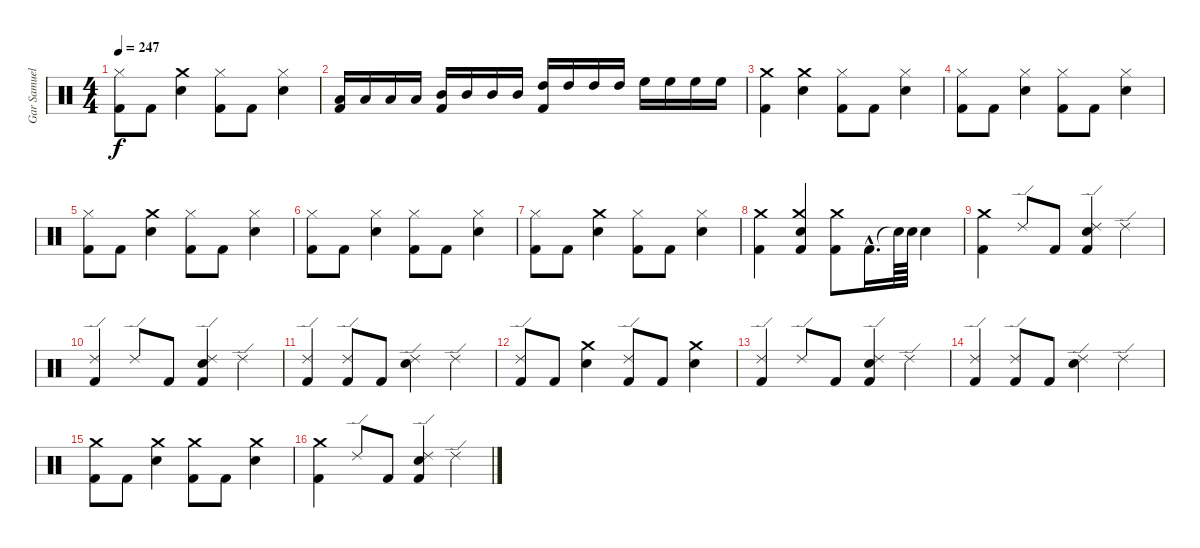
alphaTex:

\track ("Gar Samuelson (Drums)" "Gar Samuel") {instrument percussion}
\staff {score}
\articulation defaults
\ts (4 4)
\tempo 247
\clef neutral
\ks c
("Kick (hit) 2" "Hi-Hat (closed)").8{dy f} "Kick (hit) 2".8 ("Crash medium (hit)" "Snare (hit) 2").4 ("Kick (hit) 2" "Hi-Hat (closed)").8 "Kick (hit) 2".8 ("Snare (hit) 2" "Hi-Hat (closed)").4 |
("Low Tom (hit)" "Kick (hit) 2").16 "Low Tom (hit)".16 "Low Tom (hit)".16 "Low Tom (hit)".16 ("Mid Tom (hit)" "Kick (hit) 2").16 "Mid Tom (hit)".16 "Mid Tom (hit)".16 "Mid Tom (hit)".16 ("High Tom (hit)" "Kick (hit) 2").16 "High Tom (hit)".16 "High Tom (hit)".16 "High Tom (hit)".16 "High Floor Tom (hit)".16 "High Floor Tom (hit)".16 "High Floor Tom (hit)".16 "High Floor Tom (hit)".16 |
("Kick (hit) 2" "Crash medium (hit)").4 ("Snare (hit) 2" "Crash medium (hit)").4 ("Hi-Hat (closed)" "Kick (hit) 2").8 "Kick (hit) 2".8 ("Hi-Hat (closed)" "Snare (hit) 2").4 |
("Kick (hit) 2" "Hi-Hat (closed)").8 "Kick (hit) 2".8 ("Snare (hit) 2" "Hi-Hat (closed)").4 ("Kick (hit) 2" "Hi-Hat (closed)").8 "Kick (hit) 2".8 ("Snare (hit) 2" "Hi-Hat (closed)").4 |
("Kick (hit) 2" "Hi-Hat (closed)").8 "Kick (hit) 2".8 ("Crash medium (hit)" "Snare (hit) 2").4 ("Kick (hit) 2" "Hi-Hat (closed)").8 "Kick (hit) 2".8 ("Snare (hit) 2" "Hi-Hat (closed)").4 |
("Kick (hit) 2" "Hi-Hat (closed)").8 "Kick (hit) 2".8 ("Snare (hit) 2" "Hi-Hat (closed)").4 ("Kick (hit) 2" "Hi-Hat (closed)").8 "Kick (hit) 2".8 ("Snare (hit) 2" "Hi-Hat (closed)").4 |
("Kick (hit) 2" "Hi-Hat (closed)").8 "Kick (hit) 2".8 ("Crash medium (hit)" "Snare (hit) 2").4 ("Kick (hit) 2" "Hi-Hat (closed)").8 "Kick (hit) 2".8 ("Snare (hit) 2" "Hi-Hat (closed)").4 |
("Kick (hit) 2" "Crash medium (hit)").4 ("Kick (hit) 2" "Snare (hit) 2" "Crash medium (hit)").4 ("Kick (hit) 2" "Crash medium (hit)").8 "Kick (hit) 2"{hac}.16{d} "Snare (hit)"{t}.64 "Snare (hit) 2".64 "Snare (hit) 2".4 |
("Kick (hit) 2" "Crash medium (hit)").4 "Ride (edge) 2".8 "Kick (hit) 2".8 ("Kick (hit) 2" "Snare (hit) 2" "Ride (edge) 2").4 "Ride (edge) 2".4 |
("Kick (hit) 2" "Ride (edge) 2").4 "Ride (edge) 2".8 "Kick (hit) 2".8 ("Kick (hit) 2" "Snare (hit) 2" "Ride (edge) 2").4 "Ride (edge) 2".4 |
("Kick (hit) 2" "Ride (edge) 2").4 ("Kick (hit) 2" "Ride (edge) 2").8 "Kick (hit) 2".8 ("Ride (edge) 2" "Snare (hit) 2").4 "Ride (edge) 2".4 |
("Ride (edge) 2" "Kick (hit) 2").8 "Kick (hit) 2".8 ("Snare (hit) 2" "Crash medium (hit)").4 ("Ride (edge) 2" "Kick (hit) 2").8 "Kick (hit) 2".8 ("Snare (hit) 2" "Crash medium (hit)").4 |
("Ride (edge) 2" "Kick (hit) 2").4 "Ride (edge) 2".8 "Kick (hit) 2".8 ("Ride (edge) 2" "Snare (hit) 2" "Kick (hit) 2").4 "Ride (edge) 2".4 |
("Kick (hit) 2" "Ride (edge) 2").4 ("Ride (edge) 2" "Kick (hit) 2").8 "Kick (hit) 2".8 ("Snare (hit) 2" "Ride (edge) 2").4 "Ride (edge) 2".4 |
("Kick (hit) 2" "Crash medium (hit)").8 "Kick (hit) 2".8 ("Snare (hit) 2" "Crash medium (hit)").4 ("Kick (hit) 2" "Crash medium (hit)").8 "Kick (hit) 2".8 ("Snare (hit) 2" "Crash medium (hit)").4 |
("Kick (hit) 2" "Crash medium (hit)").4 "Ride (edge) 2".8 "Kick (hit) 2".8 ("Kick (hit) 2" "Snare (hit) 2" "Ride (edge) 2").4 "Ride (edge) 2".4
